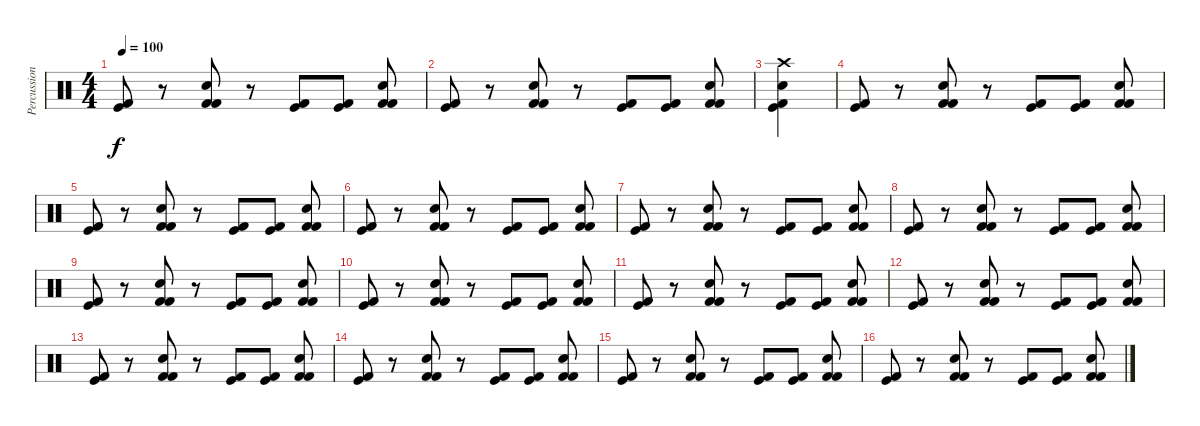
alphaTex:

\track ("Percussions" "Percussion") {instrument percussion}
\staff {score}
\articulation defaults
\ts (4 4)
\tempo 100
\clef neutral
\ks c
("Kick (hit)" "Kick (hit) 2").8{dy f} r.8 ("Kick (hit) 2" "Electric Snare (hit)" "Kick (hit) 2").8 r.8 ("Kick (hit)" "Kick (hit) 2").8 ("Kick (hit)" "Kick (hit) 2").8 ("Kick (hit) 2" "Electric Snare (hit)" "Kick (hit) 2").8 |
("Kick (hit)" "Kick (hit) 2").8 r.8 ("Kick (hit) 2" "Electric Snare (hit)" "Kick (hit) 2").8 r.8 ("Kick (hit)" "Kick (hit) 2").8 ("Kick (hit)" "Kick (hit) 2").8 ("Kick (hit) 2" "Electric Snare (hit)" "Kick (hit) 2").8 |
("Crash high (hit)" "Electric Snare (hit)" "Kick (hit) 2" "Kick (hit)").4 |
("Kick (hit)" "Kick (hit) 2").8 r.8 ("Kick (hit) 2" "Electric Snare (hit)" "Kick (hit) 2").8 r.8 ("Kick (hit)" "Kick (hit) 2").8 ("Kick (hit)" "Kick (hit) 2").8 ("Kick (hit) 2" "Electric Snare (hit)" "Kick (hit) 2").8 |
("Kick (hit)" "Kick (hit) 2").8 r.8 ("Kick (hit) 2" "Electric Snare (hit)" "Kick (hit) 2").8 r.8 ("Kick (hit)" "Kick (hit) 2").8 ("Kick (hit)" "Kick (hit) 2").8 ("Kick (hit) 2" "Electric Snare (hit)" "Kick (hit) 2").8 |
("Kick (hit)" "Kick (hit) 2").8 r.8 ("Kick (hit) 2" "Electric Snare (hit)" "Kick (hit) 2").8 r.8 ("Kick (hit)" "Kick (hit) 2").8 ("Kick (hit)" "Kick (hit) 2").8 ("Kick (hit) 2" "Electric Snare (hit)" "Kick (hit) 2").8 |
("Kick (hit)" "Kick (hit) 2").8 r.8 ("Kick (hit) 2" "Electric Snare (hit)" "Kick (hit) 2").8 r.8 ("Kick (hit)" "Kick (hit) 2").8 ("Kick (hit)" "Kick (hit) 2").8 ("Kick (hit) 2" "Electric Snare (hit)" "Kick (hit) 2").8 |
("Kick (hit)" "Kick (hit) 2").8 r.8 ("Kick (hit) 2" "Electric Snare (hit)" "Kick (hit) 2").8 r.8 ("Kick (hit)" "Kick (hit) 2").8 ("Kick (hit)" "Kick (hit) 2").8 ("Kick (hit) 2" "Electric Snare (hit)" "Kick (hit) 2").8 |
("Kick (hit)" "Kick (hit) 2").8 r.8 ("Kick (hit) 2" "Electric Snare (hit)" "Kick (hit) 2").8 r.8 ("Kick (hit)" "Kick (hit) 2").8 ("Kick (hit)" "Kick (hit) 2").8 ("Kick (hit) 2" "Electric Snare (hit)" "Kick (hit) 2").8 |
("Kick (hit)" "Kick (hit) 2").8 r.8 ("Kick (hit) 2" "Electric Snare (hit)" "Kick (hit) 2").8 r.8 ("Kick (hit)" "Kick (hit) 2").8 ("Kick (hit)" "Kick (hit) 2").8 ("Kick (hit) 2" "Electric Snare (hit)" "Kick (hit) 2").8 |
("Kick (hit)" "Kick (hit) 2").8 r.8 ("Kick (hit) 2" "Electric Snare (hit)" "Kick (hit) 2").8 r.8 ("Kick (hit)" "Kick (hit) 2").8 ("Kick (hit)" "Kick (hit) 2").8 ("Kick (hit) 2" "Electric Snare (hit)" "Kick (hit) 2").8 |
("Kick (hit)" "Kick (hit) 2").8 r.8 ("Kick (hit) 2" "Electric Snare (hit)" "Kick (hit) 2").8 r.8 ("Kick (hit)" "Kick (hit) 2").8 ("Kick (hit)" "Kick (hit) 2").8 ("Kick (hit) 2" "Electric Snare (hit)" "Kick (hit) 2").8 |
("Kick (hit)" "Kick (hit) 2").8 r.8 ("Kick (hit) 2" "Electric Snare (hit)" "Kick (hit) 2").8 r.8 ("Kick (hit)" "Kick (hit) 2").8 ("Kick (hit)" "Kick (hit) 2").8 ("Kick (hit) 2" "Electric Snare (hit)" "Kick (hit) 2").8 |
("Kick (hit)" "Kick (hit) 2").8 r.8 ("Kick (hit) 2" "Electric Snare (hit)" "Kick (hit) 2").8 r.8 ("Kick (hit)" "Kick (hit) 2").8 ("Kick (hit)" "Kick (hit) 2").8 ("Kick (hit) 2" "Electric Snare (hit)" "Kick (hit) 2").8 |
("Kick (hit)" "Kick (hit) 2").8 r.8 ("Kick (hit) 2" "Electric Snare (hit)" "Kick (hit) 2").8 r.8 ("Kick (hit)" "Kick (hit) 2").8 ("Kick (hit)" "Kick (hit) 2").8 ("Kick (hit) 2" "Electric Snare (hit)" "Kick (hit) 2").8 |
("Kick (hit)" "Kick (hit) 2").8 r.8 ("Kick (hit) 2" "Electric Snare (hit)" "Kick (hit) 2").8 r.8 ("Kick (hit)" "Kick (hit) 2").8 ("Kick (hit)" "Kick (hit) 2").8 ("Kick (hit) 2" "Electric Snare (hit)" "Kick (hit) 2").8
